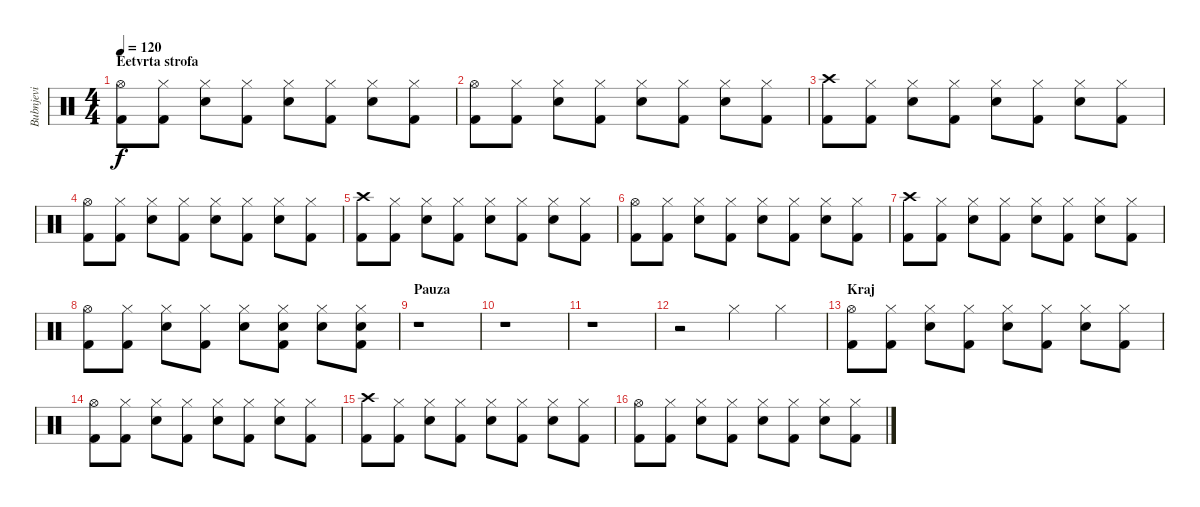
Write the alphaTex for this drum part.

\track ("Bubnjevi" "Bubnjevi") {instrument percussion}
\staff {score}
\articulation defaults
\ts (4 4)
\section ("" "Èetvrta strofa")
\tempo 120
\clef neutral
\ks c
("Hi-Hat (open)" "Kick (hit) 2").8{dy f} ("Hi-Hat (closed)" "Kick (hit) 2").8 ("Hi-Hat (closed)" "Snare (hit) 2").8 ("Hi-Hat (closed)" "Kick (hit) 2").8 ("Hi-Hat (closed)" "Snare (hit) 2").8 ("Hi-Hat (closed)" "Kick (hit) 2").8 ("Hi-Hat (closed)" "Snare (hit) 2").8 ("Hi-Hat (closed)" "Kick (hit) 2").8 |
("Hi-Hat (open)" "Kick (hit) 2").8 ("Hi-Hat (closed)" "Kick (hit) 2").8 ("Hi-Hat (closed)" "Snare (hit) 2").8 ("Hi-Hat (closed)" "Kick (hit) 2").8 ("Hi-Hat (closed)" "Snare (hit) 2").8 ("Hi-Hat (closed)" "Kick (hit) 2").8 ("Hi-Hat (closed)" "Snare (hit) 2").8 ("Hi-Hat (closed)" "Kick (hit) 2").8 |
("Crash high (hit)" "Kick (hit) 2").8 ("Hi-Hat (closed)" "Kick (hit) 2").8 ("Hi-Hat (closed)" "Snare (hit) 2").8 ("Hi-Hat (closed)" "Kick (hit) 2").8 ("Hi-Hat (closed)" "Snare (hit) 2").8 ("Hi-Hat (closed)" "Kick (hit) 2").8 ("Hi-Hat (closed)" "Snare (hit) 2").8 ("Hi-Hat (closed)" "Kick (hit) 2").8 |
("Hi-Hat (open)" "Kick (hit) 2").8 ("Hi-Hat (closed)" "Kick (hit) 2").8 ("Hi-Hat (closed)" "Snare (hit) 2").8 ("Hi-Hat (closed)" "Kick (hit) 2").8 ("Hi-Hat (closed)" "Snare (hit) 2").8 ("Hi-Hat (closed)" "Kick (hit) 2").8 ("Hi-Hat (closed)" "Snare (hit) 2").8 ("Hi-Hat (closed)" "Kick (hit) 2").8 |
("Crash high (hit)" "Kick (hit) 2").8 ("Hi-Hat (closed)" "Kick (hit) 2").8 ("Hi-Hat (closed)" "Snare (hit) 2").8 ("Hi-Hat (closed)" "Kick (hit) 2").8 ("Hi-Hat (closed)" "Snare (hit) 2").8 ("Hi-Hat (closed)" "Kick (hit) 2").8 ("Hi-Hat (closed)" "Snare (hit) 2").8 ("Hi-Hat (closed)" "Kick (hit) 2").8 |
("Hi-Hat (open)" "Kick (hit) 2").8 ("Hi-Hat (closed)" "Kick (hit) 2").8 ("Hi-Hat (closed)" "Snare (hit) 2").8 ("Hi-Hat (closed)" "Kick (hit) 2").8 ("Hi-Hat (closed)" "Snare (hit) 2").8 ("Hi-Hat (closed)" "Kick (hit) 2").8 ("Hi-Hat (closed)" "Snare (hit) 2").8 ("Hi-Hat (closed)" "Kick (hit) 2").8 |
("Crash high (hit)" "Kick (hit) 2").8 ("Hi-Hat (closed)" "Kick (hit) 2").8 ("Hi-Hat (closed)" "Snare (hit) 2").8 ("Hi-Hat (closed)" "Kick (hit) 2").8 ("Hi-Hat (closed)" "Snare (hit) 2").8 ("Hi-Hat (closed)" "Kick (hit) 2").8 ("Hi-Hat (closed)" "Snare (hit) 2").8 ("Hi-Hat (closed)" "Kick (hit) 2").8 |
("Hi-Hat (open)" "Kick (hit) 2").8 ("Hi-Hat (closed)" "Kick (hit) 2").8 ("Hi-Hat (closed)" "Snare (hit) 2").8 ("Hi-Hat (closed)" "Kick (hit) 2").8 ("Hi-Hat (closed)" "Snare (hit) 2").8 ("Hi-Hat (closed)" "Snare (hit) 2" "Kick (hit) 2").8 ("Hi-Hat (closed)" "Snare (hit) 2").8 ("Hi-Hat (closed)" "Snare (hit) 2" "Kick (hit) 2").8 |
\section ("" "Pauza")
r.1 |
r.1 |
r.1 |
r.2 "Hi-Hat (closed)".4 "Hi-Hat (closed)".4 |
\section ("" "Kraj")
("Hi-Hat (open)" "Kick (hit) 2").8 ("Hi-Hat (closed)" "Kick (hit) 2").8 ("Hi-Hat (closed)" "Snare (hit) 2").8 ("Hi-Hat (closed)" "Kick (hit) 2").8 ("Hi-Hat (closed)" "Snare (hit) 2").8 ("Hi-Hat (closed)" "Kick (hit) 2").8 ("Hi-Hat (closed)" "Snare (hit) 2").8 ("Hi-Hat (closed)" "Kick (hit) 2").8 |
("Hi-Hat (open)" "Kick (hit) 2").8 ("Hi-Hat (closed)" "Kick (hit) 2").8 ("Hi-Hat (closed)" "Snare (hit) 2").8 ("Hi-Hat (closed)" "Kick (hit) 2").8 ("Hi-Hat (closed)" "Snare (hit) 2").8 ("Hi-Hat (closed)" "Kick (hit) 2").8 ("Hi-Hat (closed)" "Snare (hit) 2").8 ("Hi-Hat (closed)" "Kick (hit) 2").8 |
("Crash high (hit)" "Kick (hit) 2").8 ("Hi-Hat (closed)" "Kick (hit) 2").8 ("Hi-Hat (closed)" "Snare (hit) 2").8 ("Hi-Hat (closed)" "Kick (hit) 2").8 ("Hi-Hat (closed)" "Snare (hit) 2").8 ("Hi-Hat (closed)" "Kick (hit) 2").8 ("Hi-Hat (closed)" "Snare (hit) 2").8 ("Hi-Hat (closed)" "Kick (hit) 2").8 |
("Hi-Hat (open)" "Kick (hit) 2").8 ("Hi-Hat (closed)" "Kick (hit) 2").8 ("Hi-Hat (closed)" "Snare (hit) 2").8 ("Hi-Hat (closed)" "Kick (hit) 2").8 ("Hi-Hat (closed)" "Snare (hit) 2").8 ("Hi-Hat (closed)" "Kick (hit) 2").8 ("Hi-Hat (closed)" "Snare (hit) 2").8 ("Hi-Hat (closed)" "Kick (hit) 2").8
